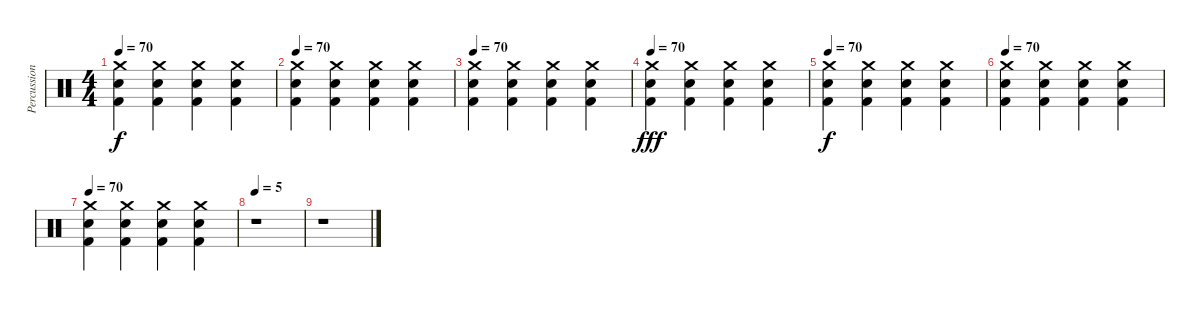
\track ("Percussion" "Percussion") {instrument percussion}
\staff {score}
\articulation defaults
\ts (4 4)
\tempo 70
\clef neutral
\ks c
("Crash medium (hit)" "Electric Snare (hit)" "Kick (hit) 2").4{dy f} ("Crash medium (hit)" "Electric Snare (hit)" "Kick (hit) 2").4 ("Crash medium (hit)" "Electric Snare (hit)" "Kick (hit) 2").4 ("Crash medium (hit)" "Electric Snare (hit)" "Kick (hit) 2").4 |
\tempo 70
("Crash medium (hit)" "Electric Snare (hit)" "Kick (hit) 2").4 ("Crash medium (hit)" "Electric Snare (hit)" "Kick (hit) 2").4 ("Crash medium (hit)" "Electric Snare (hit)" "Kick (hit) 2").4 ("Crash medium (hit)" "Electric Snare (hit)" "Kick (hit) 2").4 |
\tempo 70
("Crash medium (hit)" "Electric Snare (hit)" "Kick (hit) 2").4 ("Crash medium (hit)" "Electric Snare (hit)" "Kick (hit) 2").4 ("Crash medium (hit)" "Electric Snare (hit)" "Kick (hit) 2").4 ("Crash medium (hit)" "Electric Snare (hit)" "Kick (hit) 2").4 |
\tempo 70
("Crash medium (hit)" "Electric Snare (hit)" "Kick (hit) 2").4{dy fff} ("Crash medium (hit)" "Electric Snare (hit)" "Kick (hit) 2").4 ("Crash medium (hit)" "Electric Snare (hit)" "Kick (hit) 2").4 ("Crash medium (hit)" "Electric Snare (hit)" "Kick (hit) 2").4 |
\tempo 70
("Crash medium (hit)" "Electric Snare (hit)" "Kick (hit) 2").4{dy f} ("Crash medium (hit)" "Electric Snare (hit)" "Kick (hit) 2").4 ("Crash medium (hit)" "Electric Snare (hit)" "Kick (hit) 2").4 ("Crash medium (hit)" "Electric Snare (hit)" "Kick (hit) 2").4 |
\tempo 70
("Crash medium (hit)" "Electric Snare (hit)" "Kick (hit) 2").4 ("Crash medium (hit)" "Electric Snare (hit)" "Kick (hit) 2").4 ("Crash medium (hit)" "Electric Snare (hit)" "Kick (hit) 2").4 ("Crash medium (hit)" "Electric Snare (hit)" "Kick (hit) 2").4 |
\tempo 70
("Crash medium (hit)" "Electric Snare (hit)" "Kick (hit) 2").4{volume 3} ("Crash medium (hit)" "Electric Snare (hit)" "Kick (hit) 2").4 ("Crash medium (hit)" "Electric Snare (hit)" "Kick (hit) 2").4 ("Crash medium (hit)" "Electric Snare (hit)" "Kick (hit) 2").4 |
\tempo 5
r.1 |
r.1
